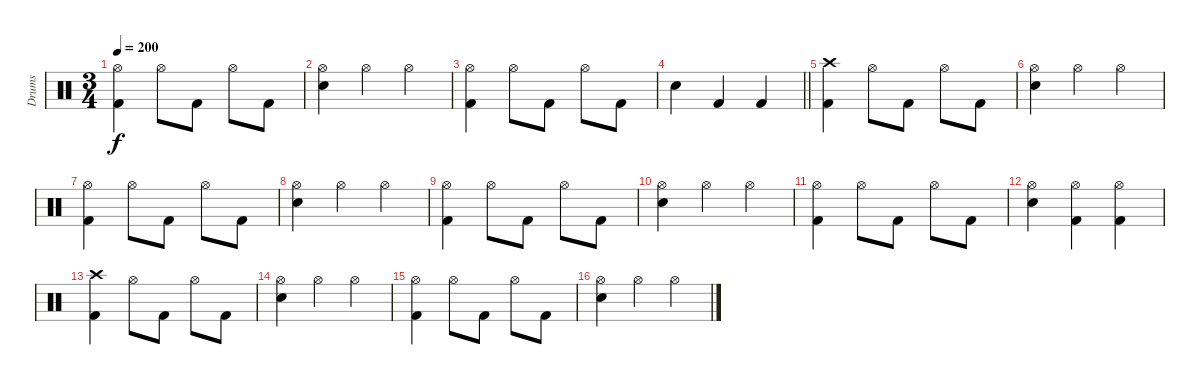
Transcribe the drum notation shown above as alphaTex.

\track ("Drums" "Drums") {instrument percussion}
\staff {score}
\articulation defaults
\ts (3 4)
\tempo 200
\clef neutral
\ks c
("Hi-Hat (open)" "Kick (hit) 2").4{dy f} "Hi-Hat (open)".8 "Kick (hit) 2".8 "Hi-Hat (open)".8 "Kick (hit) 2".8 |
("Hi-Hat (open)" "Electric Snare (hit)").4 "Hi-Hat (open)".4 "Hi-Hat (open)".4 |
("Hi-Hat (open)" "Kick (hit) 2").4 "Hi-Hat (open)".8 "Kick (hit) 2".8 "Hi-Hat (open)".8 "Kick (hit) 2".8 |
\barLineRight lightlight "Electric Snare (hit)".4 "Kick (hit) 2".4 "Kick (hit) 2".4
|
("Crash high (hit)" "Kick (hit) 2").4 "Hi-Hat (open)".8 "Kick (hit) 2".8 "Hi-Hat (open)".8 "Kick (hit) 2".8 |
("Hi-Hat (open)" "Electric Snare (hit)").4 "Hi-Hat (open)".4 "Hi-Hat (open)".4 |
("Hi-Hat (open)" "Kick (hit) 2").4 "Hi-Hat (open)".8 "Kick (hit) 2".8 "Hi-Hat (open)".8 "Kick (hit) 2".8 |
("Hi-Hat (open)" "Electric Snare (hit)").4 "Hi-Hat (open)".4 "Hi-Hat (open)".4 |
("Hi-Hat (open)" "Kick (hit) 2").4 "Hi-Hat (open)".8 "Kick (hit) 2".8 "Hi-Hat (open)".8 "Kick (hit) 2".8 |
("Hi-Hat (open)" "Electric Snare (hit)").4 "Hi-Hat (open)".4 "Hi-Hat (open)".4 |
("Hi-Hat (open)" "Kick (hit) 2").4 "Hi-Hat (open)".8 "Kick (hit) 2".8 "Hi-Hat (open)".8 "Kick (hit) 2".8 |
("Hi-Hat (open)" "Electric Snare (hit)").4 ("Hi-Hat (open)" "Kick (hit) 2").4 ("Hi-Hat (open)" "Kick (hit) 2").4 |
("Crash high (hit)" "Kick (hit) 2").4 "Hi-Hat (open)".8 "Kick (hit) 2".8 "Hi-Hat (open)".8 "Kick (hit) 2".8 |
("Hi-Hat (open)" "Electric Snare (hit)").4 "Hi-Hat (open)".4 "Hi-Hat (open)".4 |
("Hi-Hat (open)" "Kick (hit) 2").4 "Hi-Hat (open)".8 "Kick (hit) 2".8 "Hi-Hat (open)".8 "Kick (hit) 2".8 |
("Hi-Hat (open)" "Electric Snare (hit)").4 "Hi-Hat (open)".4 "Hi-Hat (open)".4
